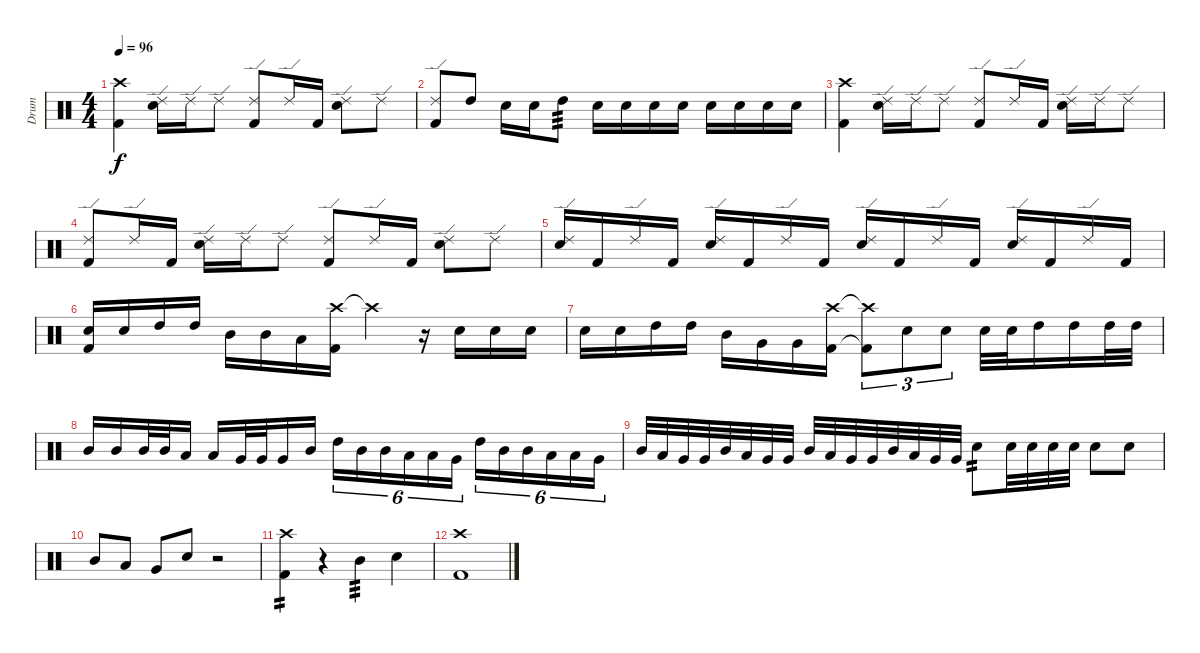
\track ("Drum" "Drum") {instrument percussion}
\staff {score}
\articulation defaults
\ts (4 4)
\tempo 96
\clef neutral
\ks c
("Crash high (hit)" "Kick (hit) 2").4{dy f} ("Ride (edge) 2" "Electric Snare (hit)").16 "Ride (edge) 2".16 "Ride (edge) 2".8 ("Ride (edge) 2" "Kick (hit) 2").8 "Ride (edge) 2".16 "Kick (hit) 2".16 ("Ride (edge) 2" "Electric Snare (hit)").8 "Ride (edge) 2".8 |
("Ride (edge) 2" "Kick (hit) 2").8 "High Tom (hit)".8 "Electric Snare (hit)".16 "Electric Snare (hit)".16 "High Tom (hit)".8{tp 3} "Electric Snare (hit)".16 "Electric Snare (hit)".16 "Electric Snare (hit)".16 "Electric Snare (hit)".16 "Electric Snare (hit)".16 "Electric Snare (hit)".16 "Electric Snare (hit)".16 "Electric Snare (hit)".16 |
("Crash high (hit)" "Kick (hit) 2").4 ("Ride (edge) 2" "Electric Snare (hit)").16 "Ride (edge) 2".16 "Ride (edge) 2".8 ("Ride (edge) 2" "Kick (hit) 2").8 "Ride (edge) 2".16 "Kick (hit) 2".16 ("Ride (edge) 2" "Electric Snare (hit)").16 "Ride (edge) 2".16 "Ride (edge) 2".8 |
("Ride (edge) 2" "Kick (hit) 2").8 "Ride (edge) 2".16 "Kick (hit) 2".16 ("Ride (edge) 2" "Electric Snare (hit)").16 "Ride (edge) 2".16 "Ride (edge) 2".8 ("Ride (edge) 2" "Kick (hit) 2").8 "Ride (edge) 2".16 "Kick (hit) 2".16 ("Ride (edge) 2" "Electric Snare (hit)").8 "Ride (edge) 2".8 |
("Ride (edge) 2" "Electric Snare (hit)").16 "Kick (hit) 2".16 "Ride (edge) 2".16 "Kick (hit) 2".16 ("Ride (edge) 2" "Electric Snare (hit)").16 "Kick (hit) 2".16 "Ride (edge) 2".16 "Kick (hit) 2".16 ("Ride (edge) 2" "Electric Snare (hit)").16 "Kick (hit) 2".16 "Ride (edge) 2".16 "Kick (hit) 2".16 ("Ride (edge) 2" "Electric Snare (hit)").16 "Kick (hit) 2".16 "Ride (edge) 2".16 "Kick (hit) 2".16 |
("Electric Snare (hit)" "Kick (hit) 2").16 "Electric Snare (hit)".16 "High Tom (hit)".16 "High Tom (hit)".16 "Mid Tom (hit)".16 "Mid Tom (hit)".16 "Low Floor Tom (hit)".16 ("Crash high (hit)" "Kick (hit) 2").16 "Crash high (hit)"{t}.4 r.16 "Electric Snare (hit)".16 "Electric Snare (hit)".16 "Electric Snare (hit)".16 |
"Electric Snare (hit)".16 "Electric Snare (hit)".16 "High Tom (hit)".16 "High Tom (hit)".16 "Mid Tom (hit)".16 "Very Low Tom (hit)".16 "Very Low Tom (hit)".16 ("Crash high (hit)" "Kick (hit) 2").16 ("Crash high (hit)"{t} "Kick (hit) 2"{t}).8{tu (3 2)} "Electric Snare (hit)".8{tu (3 2)} "Electric Snare (hit)".8{tu (3 2)} "Electric Snare (hit)".32 "Electric Snare (hit)".32 "High Tom (hit)".16 "High Tom (hit)".16 "High Tom (hit)".32 "High Tom (hit)".32 |
"Mid Tom (hit)".16 "Mid Tom (hit)".16 "Mid Tom (hit)".32 "Mid Tom (hit)".32 "Low Tom (hit)".16 "Low Tom (hit)".16 "Very Low Tom (hit)".32 "Very Low Tom (hit)".32 "Very Low Tom (hit)".16 "Mid Tom (hit)".16 "High Tom (hit)".16{tu (6 4)} "Mid Tom (hit)".16{tu (6 4)} "Mid Tom (hit)".16{tu (6 4)} "Low Tom (hit)".16{tu (6 4)} "Low Tom (hit)".16{tu (6 4)} "Very Low Tom (hit)".16{tu (6 4)} "High Tom (hit)".16{tu (6 4)} "Mid Tom (hit)".16{tu (6 4)} "Mid Tom (hit)".16{tu (6 4)} "Low Tom (hit)".16{tu (6 4)} "Low Tom (hit)".16{tu (6 4)} "Very Low Tom (hit)".16{tu (6 4)} |
"Mid Tom (hit)".32 "Low Tom (hit)".32 "Very Low Tom (hit)".32 "Very Low Tom (hit)".32 "Mid Tom (hit)".32 "Low Tom (hit)".32 "Very Low Tom (hit)".32 "Very Low Tom (hit)".32 "Mid Tom (hit)".32 "Low Tom (hit)".32 "Very Low Tom (hit)".32 "Very Low Tom (hit)".32 "Mid Tom (hit)".32 "Low Tom (hit)".32 "Very Low Tom (hit)".32 "Very Low Tom (hit)".32 "Electric Snare (hit)".8{tp 2} "Electric Snare (hit)".32 "Electric Snare (hit)".32 "Electric Snare (hit)".32 "Electric Snare (hit)".32 "Electric Snare (hit)".8 "Electric Snare (hit)".8 |
"Mid Tom (hit)".8 "Low Tom (hit)".8 "Very Low Tom (hit)".8 "Electric Snare (hit)".8 r.2 |
("Crash high (hit)" "Kick (hit) 2").4{tp 2} r.4 "Mid Tom (hit)".4{tp 3} "Electric Snare (hit)".4 |
("Crash high (hit)" "Kick (hit) 2").1
